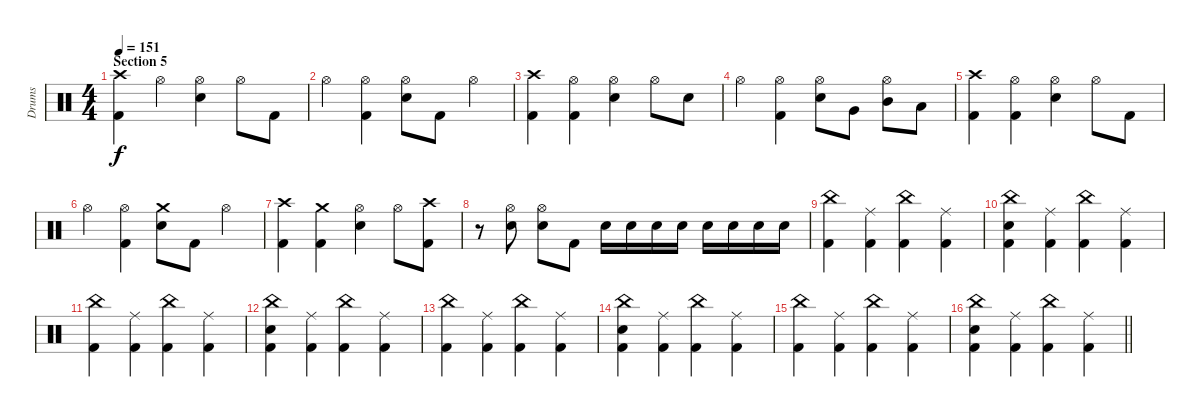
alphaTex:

\track ("Drums" "Drums") {instrument percussion}
\staff {score}
\articulation defaults
\ts (4 4)
\section ("" "Section 5")
\tempo 151
\clef neutral
\ks c
("Crash high (hit)" "Kick (hit) 2").4{dy f} "Hi-Hat (open)".4 ("Hi-Hat (open)" "Snare (hit) 2").4 "Hi-Hat (open)".8 "Kick (hit) 2".8 |
"Hi-Hat (open)".4 ("Hi-Hat (open)" "Kick (hit) 2").4 ("Hi-Hat (open)" "Snare (hit) 2").8 "Kick (hit) 2".8 "Hi-Hat (open)".4 |
("Crash high (hit)" "Kick (hit) 2").4 ("Hi-Hat (open)" "Kick (hit) 2").4 ("Hi-Hat (open)" "Snare (hit) 2").4 "Hi-Hat (open)".8 "Snare (hit) 2".8 |
"Hi-Hat (open)".4 ("Hi-Hat (open)" "Kick (hit) 2").4 ("Hi-Hat (open)" "Snare (hit) 2").8 "Very Low Tom (hit)".8 ("Hi-Hat (open)" "Mid Tom (hit)").8 "Low Tom (hit)".8 |
("Crash high (hit)" "Kick (hit) 2").4 ("Hi-Hat (open)" "Kick (hit) 2").4 ("Hi-Hat (open)" "Snare (hit) 2").4 "Hi-Hat (open)".8 "Kick (hit) 2".8 |
"Hi-Hat (open)".4 ("Hi-Hat (open)" "Kick (hit) 2").4 ("Crash medium (hit)" "Snare (hit) 2").8 "Kick (hit) 2".8 "Hi-Hat (open)".4 |
("Crash high (hit)" "Kick (hit) 2").4 ("Crash medium (hit)" "Kick (hit) 2").4 ("Hi-Hat (open)" "Snare (hit) 2").4 "Hi-Hat (open)".8 ("Crash high (hit)" "Kick (hit) 2").8 |
r.8 ("Hi-Hat (open)" "Snare (hit) 2").8 ("Hi-Hat (open)" "Snare (hit) 2").8 "Kick (hit) 2".8 "Snare (hit) 2".16 "Snare (hit) 2".16 "Snare (hit) 2".16 "Snare (hit) 2".16 "Snare (hit) 2".16 "Snare (hit) 2".16 "Snare (hit) 2".16 "Snare (hit) 2".16 |
("China (hit)" "Kick (hit) 2").4 ("Ride (middle)" "Kick (hit) 2").4 ("China (hit)" "Kick (hit) 2").4 ("Ride (middle)" "Kick (hit) 2").4 |
("China (hit)" "Snare (hit) 2" "Kick (hit) 2").4 ("Ride (middle)" "Kick (hit) 2").4 ("China (hit)" "Kick (hit) 2").4 ("Ride (middle)" "Kick (hit) 2").4 |
("China (hit)" "Kick (hit) 2").4 ("Ride (middle)" "Kick (hit) 2").4 ("China (hit)" "Kick (hit) 2").4 ("Ride (middle)" "Kick (hit) 2").4 |
("China (hit)" "Snare (hit) 2" "Kick (hit) 2").4 ("Ride (middle)" "Kick (hit) 2").4 ("China (hit)" "Kick (hit) 2").4 ("Ride (middle)" "Kick (hit) 2").4 |
("China (hit)" "Kick (hit) 2").4 ("Ride (middle)" "Kick (hit) 2").4 ("China (hit)" "Kick (hit) 2").4 ("Ride (middle)" "Kick (hit) 2").4 |
("China (hit)" "Snare (hit) 2" "Kick (hit) 2").4 ("Ride (middle)" "Kick (hit) 2").4 ("China (hit)" "Kick (hit) 2").4 ("Ride (middle)" "Kick (hit) 2").4 |
("China (hit)" "Kick (hit) 2").4 ("Ride (middle)" "Kick (hit) 2").4 ("China (hit)" "Kick (hit) 2").4 ("Ride (middle)" "Kick (hit) 2").4 |
\barLineRight lightlight
("China (hit)" "Snare (hit) 2" "Kick (hit) 2").4 ("Ride (middle)" "Kick (hit) 2").4 ("China (hit)" "Kick (hit) 2").4 ("Ride (middle)" "Kick (hit) 2").4
